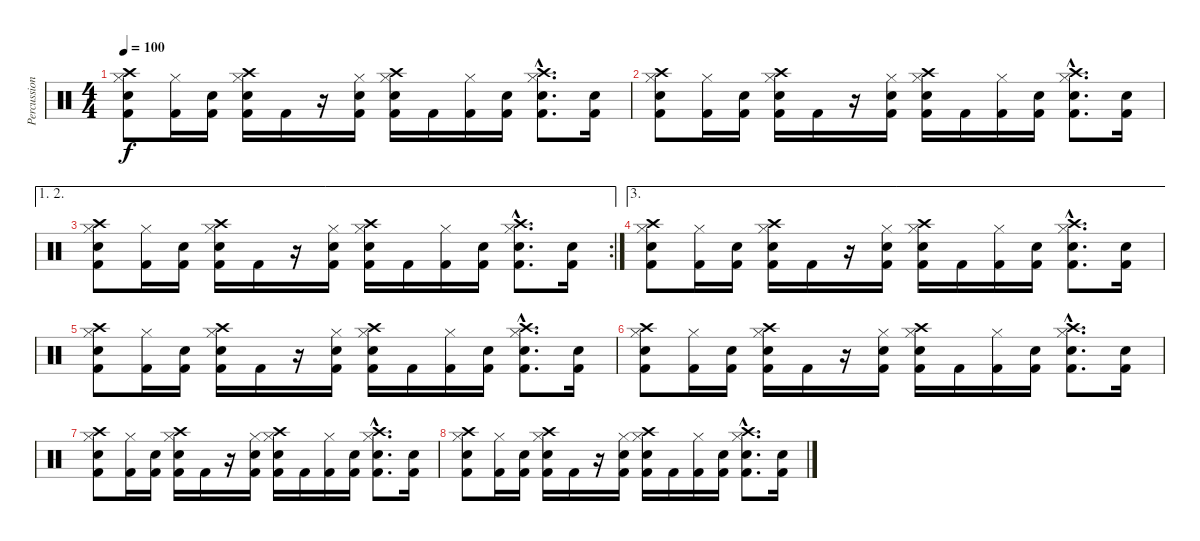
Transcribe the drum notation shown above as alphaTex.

\track ("Percussion" "Percussion") {instrument percussion}
\staff {score}
\articulation defaults
\ts (4 4)
\tempo 100
\clef neutral
\ks c
("Electric Snare (hit)" "Kick (hit) 2" "Hi-Hat (closed)" "Crash high (hit)").8{dy f} ("Kick (hit) 2" "Hi-Hat (closed)").16 ("Electric Snare (hit)" "Kick (hit) 2").16 ("Electric Snare (hit)" "Kick (hit) 2" "Hi-Hat (closed)" "Crash high (hit)").16 "Kick (hit) 2".16 r.16 ("Electric Snare (hit)" "Kick (hit) 2" "Hi-Hat (closed)").16 ("Electric Snare (hit)" "Kick (hit) 2" "Hi-Hat (closed)" "Crash high (hit)").16 "Kick (hit) 2".16 ("Kick (hit) 2" "Hi-Hat (closed)").16 ("Electric Snare (hit)" "Kick (hit) 2").16 ("Electric Snare (hit)"{hac} "Kick (hit) 2"{hac} "Hi-Hat (closed)"{hac} "Crash high (hit)"{hac}).8{d} ("Electric Snare (hit)" "Kick (hit) 2").16 |
("Electric Snare (hit)" "Kick (hit) 2" "Hi-Hat (closed)" "Crash high (hit)").8 ("Kick (hit) 2" "Hi-Hat (closed)").16 ("Electric Snare (hit)" "Kick (hit) 2").16 ("Electric Snare (hit)" "Kick (hit) 2" "Hi-Hat (closed)" "Crash high (hit)").16 "Kick (hit) 2".16 r.16 ("Electric Snare (hit)" "Kick (hit) 2" "Hi-Hat (closed)").16 ("Electric Snare (hit)" "Kick (hit) 2" "Hi-Hat (closed)" "Crash high (hit)").16 "Kick (hit) 2".16 ("Kick (hit) 2" "Hi-Hat (closed)").16 ("Electric Snare (hit)" "Kick (hit) 2").16 ("Electric Snare (hit)"{hac} "Kick (hit) 2"{hac} "Hi-Hat (closed)"{hac} "Crash high (hit)"{hac}).8{d} ("Electric Snare (hit)" "Kick (hit) 2").16 |
\ae (1 2)
\rc 2
("Electric Snare (hit)" "Kick (hit) 2" "Hi-Hat (closed)" "Crash high (hit)").8 ("Kick (hit) 2" "Hi-Hat (closed)").16 ("Electric Snare (hit)" "Kick (hit) 2").16 ("Electric Snare (hit)" "Kick (hit) 2" "Hi-Hat (closed)" "Crash high (hit)").16 "Kick (hit) 2".16 r.16 ("Electric Snare (hit)" "Kick (hit) 2" "Hi-Hat (closed)").16 ("Electric Snare (hit)" "Kick (hit) 2" "Hi-Hat (closed)" "Crash high (hit)").16 "Kick (hit) 2".16 ("Kick (hit) 2" "Hi-Hat (closed)").16 ("Electric Snare (hit)" "Kick (hit) 2").16 ("Electric Snare (hit)"{hac} "Kick (hit) 2"{hac} "Hi-Hat (closed)"{hac} "Crash high (hit)"{hac}).8{d} ("Electric Snare (hit)" "Kick (hit) 2").16 |
\ae 3
("Electric Snare (hit)" "Kick (hit) 2" "Hi-Hat (closed)" "Crash high (hit)").8 ("Kick (hit) 2" "Hi-Hat (closed)").16 ("Electric Snare (hit)" "Kick (hit) 2").16 ("Electric Snare (hit)" "Kick (hit) 2" "Hi-Hat (closed)" "Crash high (hit)").16 "Kick (hit) 2".16 r.16 ("Electric Snare (hit)" "Kick (hit) 2" "Hi-Hat (closed)").16 ("Electric Snare (hit)" "Kick (hit) 2" "Hi-Hat (closed)" "Crash high (hit)").16 "Kick (hit) 2".16 ("Kick (hit) 2" "Hi-Hat (closed)").16 ("Electric Snare (hit)" "Kick (hit) 2").16 ("Electric Snare (hit)"{hac} "Kick (hit) 2"{hac} "Hi-Hat (closed)"{hac} "Crash high (hit)"{hac}).8{d} ("Electric Snare (hit)" "Kick (hit) 2").16 |
("Electric Snare (hit)" "Kick (hit) 2" "Hi-Hat (closed)" "Crash high (hit)").8 ("Kick (hit) 2" "Hi-Hat (closed)").16 ("Electric Snare (hit)" "Kick (hit) 2").16 ("Electric Snare (hit)" "Kick (hit) 2" "Hi-Hat (closed)" "Crash high (hit)").16 "Kick (hit) 2".16 r.16 ("Electric Snare (hit)" "Kick (hit) 2" "Hi-Hat (closed)").16 ("Electric Snare (hit)" "Kick (hit) 2" "Hi-Hat (closed)" "Crash high (hit)").16 "Kick (hit) 2".16 ("Kick (hit) 2" "Hi-Hat (closed)").16 ("Electric Snare (hit)" "Kick (hit) 2").16 ("Electric Snare (hit)"{hac} "Kick (hit) 2"{hac} "Hi-Hat (closed)"{hac} "Crash high (hit)"{hac}).8{d} ("Electric Snare (hit)" "Kick (hit) 2").16 |
("Electric Snare (hit)" "Kick (hit) 2" "Hi-Hat (closed)" "Crash high (hit)").8 ("Kick (hit) 2" "Hi-Hat (closed)").16 ("Electric Snare (hit)" "Kick (hit) 2").16 ("Electric Snare (hit)" "Kick (hit) 2" "Hi-Hat (closed)" "Crash high (hit)").16 "Kick (hit) 2".16 r.16 ("Electric Snare (hit)" "Kick (hit) 2" "Hi-Hat (closed)").16 ("Electric Snare (hit)" "Kick (hit) 2" "Hi-Hat (closed)" "Crash high (hit)").16 "Kick (hit) 2".16 ("Kick (hit) 2" "Hi-Hat (closed)").16 ("Electric Snare (hit)" "Kick (hit) 2").16 ("Electric Snare (hit)"{hac} "Kick (hit) 2"{hac} "Hi-Hat (closed)"{hac} "Crash high (hit)"{hac}).8{d} ("Electric Snare (hit)" "Kick (hit) 2").16 |
("Electric Snare (hit)" "Kick (hit) 2" "Hi-Hat (closed)" "Crash high (hit)").8 ("Kick (hit) 2" "Hi-Hat (closed)").16 ("Electric Snare (hit)" "Kick (hit) 2").16 ("Electric Snare (hit)" "Kick (hit) 2" "Hi-Hat (closed)" "Crash high (hit)").16 "Kick (hit) 2".16 r.16 ("Electric Snare (hit)" "Kick (hit) 2" "Hi-Hat (closed)").16 ("Electric Snare (hit)" "Kick (hit) 2" "Hi-Hat (closed)" "Crash high (hit)").16 "Kick (hit) 2".16 ("Kick (hit) 2" "Hi-Hat (closed)").16 ("Electric Snare (hit)" "Kick (hit) 2").16 ("Electric Snare (hit)"{hac} "Kick (hit) 2"{hac} "Hi-Hat (closed)"{hac} "Crash high (hit)"{hac}).8{d} ("Electric Snare (hit)" "Kick (hit) 2").16 |
("Electric Snare (hit)" "Kick (hit) 2" "Hi-Hat (closed)" "Crash high (hit)").8 ("Kick (hit) 2" "Hi-Hat (closed)").16 ("Electric Snare (hit)" "Kick (hit) 2").16 ("Electric Snare (hit)" "Kick (hit) 2" "Hi-Hat (closed)" "Crash high (hit)").16 "Kick (hit) 2".16 r.16 ("Electric Snare (hit)" "Kick (hit) 2" "Hi-Hat (closed)").16 ("Electric Snare (hit)" "Kick (hit) 2" "Hi-Hat (closed)" "Crash high (hit)").16 "Kick (hit) 2".16 ("Kick (hit) 2" "Hi-Hat (closed)").16 ("Electric Snare (hit)" "Kick (hit) 2").16 ("Electric Snare (hit)"{hac} "Kick (hit) 2"{hac} "Hi-Hat (closed)"{hac} "Crash high (hit)"{hac}).8{d} ("Electric Snare (hit)" "Kick (hit) 2").16
